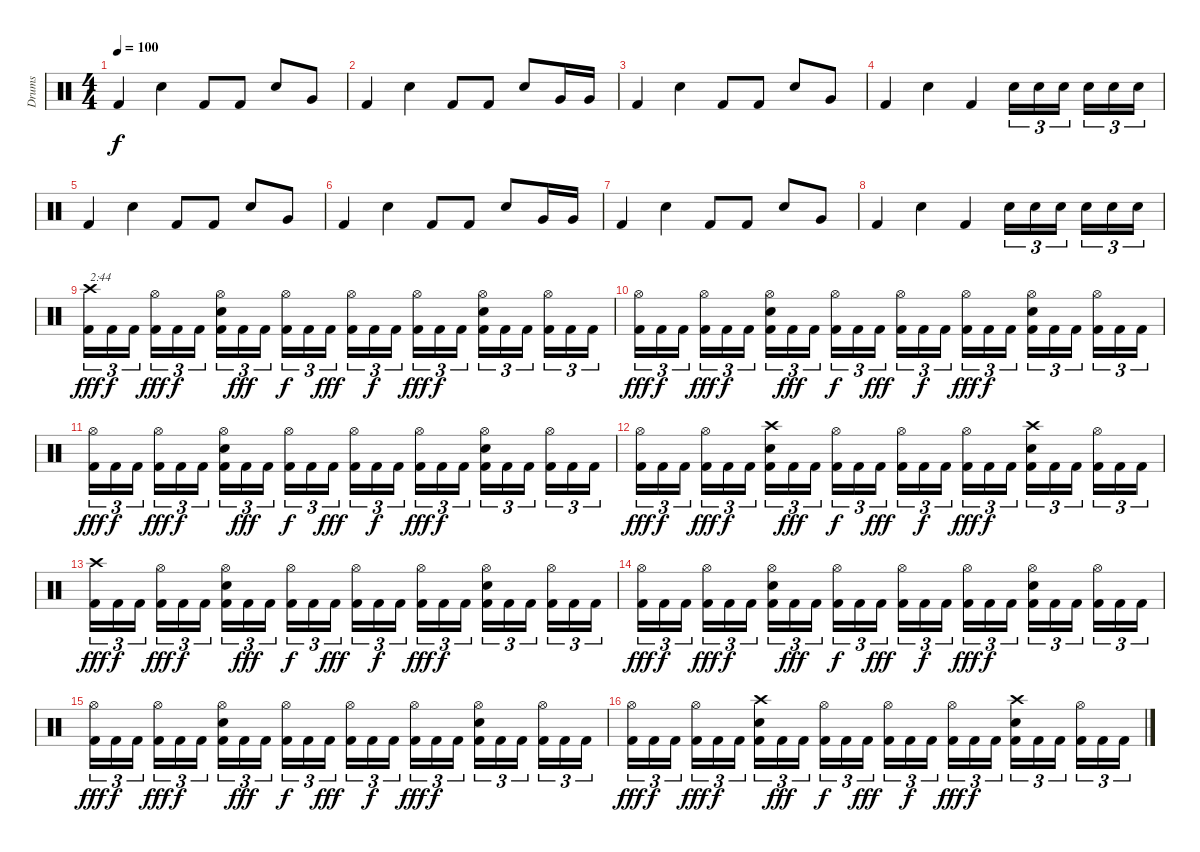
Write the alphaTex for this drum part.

\track ("Drums" "Drums") {instrument percussion}
\staff {score}
\articulation defaults
\ts (4 4)
\tempo 100
\clef neutral
\ks c "Kick (hit) 2".4{dy f} "Electric Snare (hit)".4 "Kick (hit) 2".8 "Kick (hit) 2".8 "Electric Snare (hit)".8 "Very Low Tom (hit)".8
|
"Kick (hit) 2".4 "Electric Snare (hit)".4 "Kick (hit) 2".8 "Kick (hit) 2".8 "Electric Snare (hit)".8 "Very Low Tom (hit)".16 "Very Low Tom (hit)".16 |
"Kick (hit) 2".4 "Electric Snare (hit)".4 "Kick (hit) 2".8 "Kick (hit) 2".8 "Electric Snare (hit)".8 "Very Low Tom (hit)".8 |
"Kick (hit) 2".4 "Electric Snare (hit)".4 "Kick (hit) 2".4 "Electric Snare (hit)".16{tu (3 2)} "Electric Snare (hit)".16{tu (3 2)} "Electric Snare (hit)".16{tu (3 2)} "Electric Snare (hit)".16{tu (3 2)} "Electric Snare (hit)".16{tu (3 2)} "Electric Snare (hit)".16{tu (3 2)} |
"Kick (hit) 2".4 "Electric Snare (hit)".4 "Kick (hit) 2".8 "Kick (hit) 2".8 "Electric Snare (hit)".8 "Very Low Tom (hit)".8 |
"Kick (hit) 2".4 "Electric Snare (hit)".4 "Kick (hit) 2".8 "Kick (hit) 2".8 "Electric Snare (hit)".8 "Very Low Tom (hit)".16 "Very Low Tom (hit)".16 |
"Kick (hit) 2".4 "Electric Snare (hit)".4 "Kick (hit) 2".8 "Kick (hit) 2".8 "Electric Snare (hit)".8 "Very Low Tom (hit)".8 |
"Kick (hit) 2".4 "Electric Snare (hit)".4 "Kick (hit) 2".4 "Electric Snare (hit)".16{tu (3 2)} "Electric Snare (hit)".16{tu (3 2)} "Electric Snare (hit)".16{tu (3 2)} "Electric Snare (hit)".16{tu (3 2)} "Electric Snare (hit)".16{tu (3 2)} "Electric Snare (hit)".16{tu (3 2)} |
("Crash high (hit)" "Kick (hit) 2").16{tu (3 2) txt "2:44" dy fff} "Kick (hit) 2".16{tu (3 2) dy f} "Kick (hit) 2".16{tu (3 2)} ("Hi-Hat (open)" "Kick (hit) 2").16{tu (3 2) dy fff} "Kick (hit) 2".16{tu (3 2) dy f} "Kick (hit) 2".16{tu (3 2)} ("Hi-Hat (open)" "Electric Snare (hit)" "Kick (hit) 2").16{tu (3 2)} "Kick (hit) 2".16{tu (3 2) dy fff} "Kick (hit) 2".16{tu (3 2)} ("Hi-Hat (open)" "Kick (hit) 2").16{tu (3 2) dy f} "Kick (hit) 2".16{tu (3 2)} "Kick (hit) 2".16{tu (3 2) dy fff} ("Hi-Hat (open)" "Kick (hit) 2").16{tu (3 2)} "Kick (hit) 2".16{tu (3 2) dy f} "Kick (hit) 2".16{tu (3 2)} ("Hi-Hat (open)" "Kick (hit) 2").16{tu (3 2) dy fff} "Kick (hit) 2".16{tu (3 2) dy f} "Kick (hit) 2".16{tu (3 2)} ("Hi-Hat (open)" "Electric Snare (hit)" "Kick (hit) 2").16{tu (3 2)} "Kick (hit) 2".16{tu (3 2)} "Kick (hit) 2".16{tu (3 2)} ("Hi-Hat (open)" "Kick (hit) 2").16{tu (3 2)} "Kick (hit) 2".16{tu (3 2)} "Kick (hit) 2".16{tu (3 2)} |
("Hi-Hat (open)" "Kick (hit) 2").16{tu (3 2) dy fff} "Kick (hit) 2".16{tu (3 2) dy f} "Kick (hit) 2".16{tu (3 2)} ("Hi-Hat (open)" "Kick (hit) 2").16{tu (3 2) dy fff} "Kick (hit) 2".16{tu (3 2) dy f} "Kick (hit) 2".16{tu (3 2)} ("Hi-Hat (open)" "Electric Snare (hit)" "Kick (hit) 2").16{tu (3 2)} "Kick (hit) 2".16{tu (3 2) dy fff} "Kick (hit) 2".16{tu (3 2)} ("Hi-Hat (open)" "Kick (hit) 2").16{tu (3 2) dy f} "Kick (hit) 2".16{tu (3 2)} "Kick (hit) 2".16{tu (3 2) dy fff} ("Hi-Hat (open)" "Kick (hit) 2").16{tu (3 2)} "Kick (hit) 2".16{tu (3 2) dy f} "Kick (hit) 2".16{tu (3 2)} ("Hi-Hat (open)" "Kick (hit) 2").16{tu (3 2) dy fff} "Kick (hit) 2".16{tu (3 2) dy f} "Kick (hit) 2".16{tu (3 2)} ("Hi-Hat (open)" "Electric Snare (hit)" "Kick (hit) 2").16{tu (3 2)} "Kick (hit) 2".16{tu (3 2)} "Kick (hit) 2".16{tu (3 2)} ("Hi-Hat (open)" "Kick (hit) 2").16{tu (3 2)} "Kick (hit) 2".16{tu (3 2)} "Kick (hit) 2".16{tu (3 2)} |
("Hi-Hat (open)" "Kick (hit) 2").16{tu (3 2) dy fff} "Kick (hit) 2".16{tu (3 2) dy f} "Kick (hit) 2".16{tu (3 2)} ("Hi-Hat (open)" "Kick (hit) 2").16{tu (3 2) dy fff} "Kick (hit) 2".16{tu (3 2) dy f} "Kick (hit) 2".16{tu (3 2)} ("Hi-Hat (open)" "Electric Snare (hit)" "Kick (hit) 2").16{tu (3 2)} "Kick (hit) 2".16{tu (3 2) dy fff} "Kick (hit) 2".16{tu (3 2)} ("Hi-Hat (open)" "Kick (hit) 2").16{tu (3 2) dy f} "Kick (hit) 2".16{tu (3 2)} "Kick (hit) 2".16{tu (3 2) dy fff} ("Hi-Hat (open)" "Kick (hit) 2").16{tu (3 2)} "Kick (hit) 2".16{tu (3 2) dy f} "Kick (hit) 2".16{tu (3 2)} ("Hi-Hat (open)" "Kick (hit) 2").16{tu (3 2) dy fff} "Kick (hit) 2".16{tu (3 2) dy f} "Kick (hit) 2".16{tu (3 2)} ("Hi-Hat (open)" "Electric Snare (hit)" "Kick (hit) 2").16{tu (3 2)} "Kick (hit) 2".16{tu (3 2)} "Kick (hit) 2".16{tu (3 2)} ("Hi-Hat (open)" "Kick (hit) 2").16{tu (3 2)} "Kick (hit) 2".16{tu (3 2)} "Kick (hit) 2".16{tu (3 2)} |
("Hi-Hat (open)" "Kick (hit) 2").16{tu (3 2) dy fff} "Kick (hit) 2".16{tu (3 2) dy f} "Kick (hit) 2".16{tu (3 2)} ("Hi-Hat (open)" "Kick (hit) 2").16{tu (3 2) dy fff} "Kick (hit) 2".16{tu (3 2) dy f} "Kick (hit) 2".16{tu (3 2)} ("Crash high (hit)" "Electric Snare (hit)" "Kick (hit) 2").16{tu (3 2)} "Kick (hit) 2".16{tu (3 2) dy fff} "Kick (hit) 2".16{tu (3 2)} ("Hi-Hat (open)" "Kick (hit) 2").16{tu (3 2) dy f} "Kick (hit) 2".16{tu (3 2)} "Kick (hit) 2".16{tu (3 2) dy fff} ("Hi-Hat (open)" "Kick (hit) 2").16{tu (3 2)} "Kick (hit) 2".16{tu (3 2) dy f} "Kick (hit) 2".16{tu (3 2)} ("Hi-Hat (open)" "Kick (hit) 2").16{tu (3 2) dy fff} "Kick (hit) 2".16{tu (3 2) dy f} "Kick (hit) 2".16{tu (3 2)} ("Crash high (hit)" "Electric Snare (hit)" "Kick (hit) 2").16{tu (3 2)} "Kick (hit) 2".16{tu (3 2)} "Kick (hit) 2".16{tu (3 2)} ("Hi-Hat (open)" "Kick (hit) 2").16{tu (3 2)} "Kick (hit) 2".16{tu (3 2)} "Kick (hit) 2".16{tu (3 2)} |
("Crash high (hit)" "Kick (hit) 2").16{tu (3 2) dy fff} "Kick (hit) 2".16{tu (3 2) dy f} "Kick (hit) 2".16{tu (3 2)} ("Hi-Hat (open)" "Kick (hit) 2").16{tu (3 2) dy fff} "Kick (hit) 2".16{tu (3 2) dy f} "Kick (hit) 2".16{tu (3 2)} ("Hi-Hat (open)" "Electric Snare (hit)" "Kick (hit) 2").16{tu (3 2)} "Kick (hit) 2".16{tu (3 2) dy fff} "Kick (hit) 2".16{tu (3 2)} ("Hi-Hat (open)" "Kick (hit) 2").16{tu (3 2) dy f} "Kick (hit) 2".16{tu (3 2)} "Kick (hit) 2".16{tu (3 2) dy fff} ("Hi-Hat (open)" "Kick (hit) 2").16{tu (3 2)} "Kick (hit) 2".16{tu (3 2) dy f} "Kick (hit) 2".16{tu (3 2)} ("Hi-Hat (open)" "Kick (hit) 2").16{tu (3 2) dy fff} "Kick (hit) 2".16{tu (3 2) dy f} "Kick (hit) 2".16{tu (3 2)} ("Hi-Hat (open)" "Electric Snare (hit)" "Kick (hit) 2").16{tu (3 2)} "Kick (hit) 2".16{tu (3 2)} "Kick (hit) 2".16{tu (3 2)} ("Hi-Hat (open)" "Kick (hit) 2").16{tu (3 2)} "Kick (hit) 2".16{tu (3 2)} "Kick (hit) 2".16{tu (3 2)} |
("Hi-Hat (open)" "Kick (hit) 2").16{tu (3 2) dy fff} "Kick (hit) 2".16{tu (3 2) dy f} "Kick (hit) 2".16{tu (3 2)} ("Hi-Hat (open)" "Kick (hit) 2").16{tu (3 2) dy fff} "Kick (hit) 2".16{tu (3 2) dy f} "Kick (hit) 2".16{tu (3 2)} ("Hi-Hat (open)" "Electric Snare (hit)" "Kick (hit) 2").16{tu (3 2)} "Kick (hit) 2".16{tu (3 2) dy fff} "Kick (hit) 2".16{tu (3 2)} ("Hi-Hat (open)" "Kick (hit) 2").16{tu (3 2) dy f} "Kick (hit) 2".16{tu (3 2)} "Kick (hit) 2".16{tu (3 2) dy fff} ("Hi-Hat (open)" "Kick (hit) 2").16{tu (3 2)} "Kick (hit) 2".16{tu (3 2) dy f} "Kick (hit) 2".16{tu (3 2)} ("Hi-Hat (open)" "Kick (hit) 2").16{tu (3 2) dy fff} "Kick (hit) 2".16{tu (3 2) dy f} "Kick (hit) 2".16{tu (3 2)} ("Hi-Hat (open)" "Electric Snare (hit)" "Kick (hit) 2").16{tu (3 2)} "Kick (hit) 2".16{tu (3 2)} "Kick (hit) 2".16{tu (3 2)} ("Hi-Hat (open)" "Kick (hit) 2").16{tu (3 2)} "Kick (hit) 2".16{tu (3 2)} "Kick (hit) 2".16{tu (3 2)} |
("Hi-Hat (open)" "Kick (hit) 2").16{tu (3 2) dy fff} "Kick (hit) 2".16{tu (3 2) dy f} "Kick (hit) 2".16{tu (3 2)} ("Hi-Hat (open)" "Kick (hit) 2").16{tu (3 2) dy fff} "Kick (hit) 2".16{tu (3 2) dy f} "Kick (hit) 2".16{tu (3 2)} ("Hi-Hat (open)" "Electric Snare (hit)" "Kick (hit) 2").16{tu (3 2)} "Kick (hit) 2".16{tu (3 2) dy fff} "Kick (hit) 2".16{tu (3 2)} ("Hi-Hat (open)" "Kick (hit) 2").16{tu (3 2) dy f} "Kick (hit) 2".16{tu (3 2)} "Kick (hit) 2".16{tu (3 2) dy fff} ("Hi-Hat (open)" "Kick (hit) 2").16{tu (3 2)} "Kick (hit) 2".16{tu (3 2) dy f} "Kick (hit) 2".16{tu (3 2)} ("Hi-Hat (open)" "Kick (hit) 2").16{tu (3 2) dy fff} "Kick (hit) 2".16{tu (3 2) dy f} "Kick (hit) 2".16{tu (3 2)} ("Hi-Hat (open)" "Electric Snare (hit)" "Kick (hit) 2").16{tu (3 2)} "Kick (hit) 2".16{tu (3 2)} "Kick (hit) 2".16{tu (3 2)} ("Hi-Hat (open)" "Kick (hit) 2").16{tu (3 2)} "Kick (hit) 2".16{tu (3 2)} "Kick (hit) 2".16{tu (3 2)} |
("Hi-Hat (open)" "Kick (hit) 2").16{tu (3 2) dy fff} "Kick (hit) 2".16{tu (3 2) dy f} "Kick (hit) 2".16{tu (3 2)} ("Hi-Hat (open)" "Kick (hit) 2").16{tu (3 2) dy fff} "Kick (hit) 2".16{tu (3 2) dy f} "Kick (hit) 2".16{tu (3 2)} ("Crash high (hit)" "Electric Snare (hit)" "Kick (hit) 2").16{tu (3 2)} "Kick (hit) 2".16{tu (3 2) dy fff} "Kick (hit) 2".16{tu (3 2)} ("Hi-Hat (open)" "Kick (hit) 2").16{tu (3 2) dy f} "Kick (hit) 2".16{tu (3 2)} "Kick (hit) 2".16{tu (3 2) dy fff} ("Hi-Hat (open)" "Kick (hit) 2").16{tu (3 2)} "Kick (hit) 2".16{tu (3 2) dy f} "Kick (hit) 2".16{tu (3 2)} ("Hi-Hat (open)" "Kick (hit) 2").16{tu (3 2) dy fff} "Kick (hit) 2".16{tu (3 2) dy f} "Kick (hit) 2".16{tu (3 2)} ("Crash high (hit)" "Electric Snare (hit)" "Kick (hit) 2").16{tu (3 2)} "Kick (hit) 2".16{tu (3 2)} "Kick (hit) 2".16{tu (3 2)} ("Hi-Hat (open)" "Kick (hit) 2").16{tu (3 2)} "Kick (hit) 2".16{tu (3 2)} "Kick (hit) 2".16{tu (3 2)}
